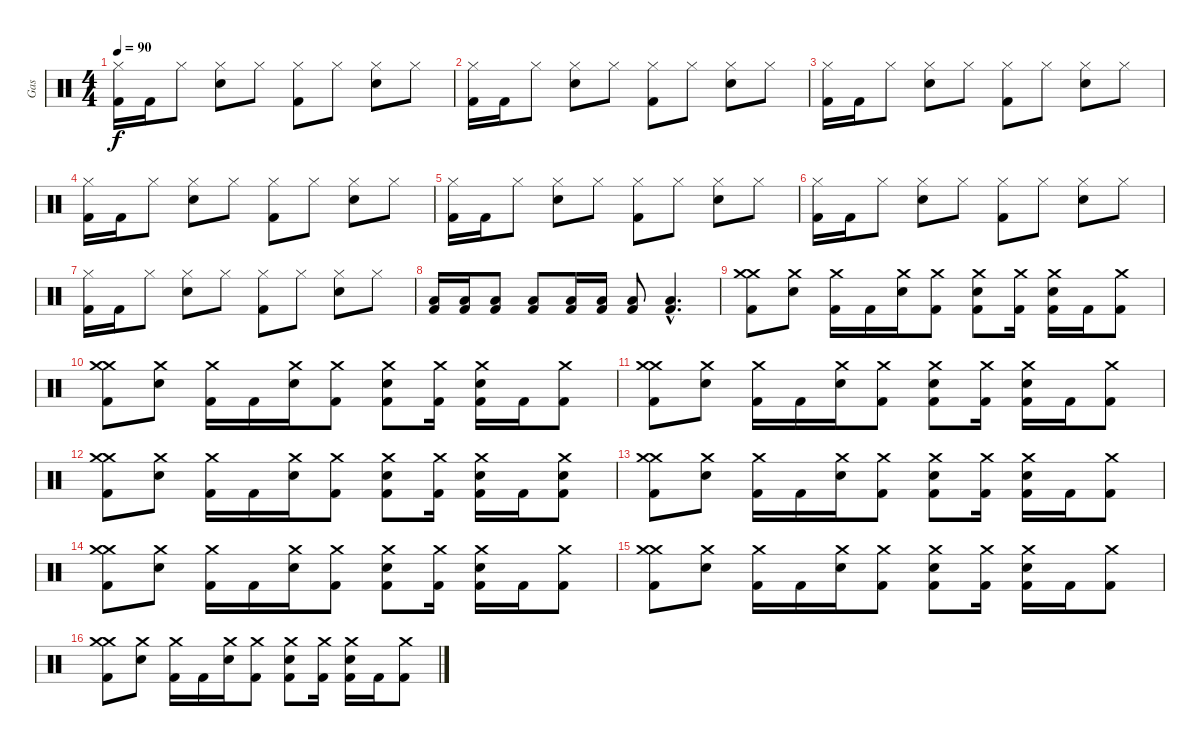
\track ("Gas" "Gas") {instrument percussion}
\staff {score}
\articulation defaults
\ts (4 4)
\tempo 90
\clef neutral
\ks c
("Hi-Hat (closed)" "Kick (hit) 2").16{dy f} "Kick (hit) 2".16 "Hi-Hat (closed)".8 ("Snare (hit) 2" "Hi-Hat (closed)").8 "Hi-Hat (closed)".8 ("Hi-Hat (closed)" "Kick (hit) 2").8 "Hi-Hat (closed)".8 ("Snare (hit) 2" "Hi-Hat (closed)").8 "Hi-Hat (closed)".8 |
("Hi-Hat (closed)" "Kick (hit) 2").16 "Kick (hit) 2".16 "Hi-Hat (closed)".8 ("Snare (hit) 2" "Hi-Hat (closed)").8 "Hi-Hat (closed)".8 ("Hi-Hat (closed)" "Kick (hit) 2").8 "Hi-Hat (closed)".8 ("Snare (hit) 2" "Hi-Hat (closed)").8 "Hi-Hat (closed)".8 |
("Hi-Hat (closed)" "Kick (hit) 2").16 "Kick (hit) 2".16 "Hi-Hat (closed)".8 ("Snare (hit) 2" "Hi-Hat (closed)").8 "Hi-Hat (closed)".8 ("Hi-Hat (closed)" "Kick (hit) 2").8 "Hi-Hat (closed)".8 ("Snare (hit) 2" "Hi-Hat (closed)").8 "Hi-Hat (closed)".8 |
("Hi-Hat (closed)" "Kick (hit) 2").16 "Kick (hit) 2".16 "Hi-Hat (closed)".8 ("Snare (hit) 2" "Hi-Hat (closed)").8 "Hi-Hat (closed)".8 ("Hi-Hat (closed)" "Kick (hit) 2").8 "Hi-Hat (closed)".8 ("Snare (hit) 2" "Hi-Hat (closed)").8 "Hi-Hat (closed)".8 |
("Hi-Hat (closed)" "Kick (hit) 2").16 "Kick (hit) 2".16 "Hi-Hat (closed)".8 ("Snare (hit) 2" "Hi-Hat (closed)").8 "Hi-Hat (closed)".8 ("Hi-Hat (closed)" "Kick (hit) 2").8 "Hi-Hat (closed)".8 ("Snare (hit) 2" "Hi-Hat (closed)").8 "Hi-Hat (closed)".8 |
("Hi-Hat (closed)" "Kick (hit) 2").16 "Kick (hit) 2".16 "Hi-Hat (closed)".8 ("Snare (hit) 2" "Hi-Hat (closed)").8 "Hi-Hat (closed)".8 ("Hi-Hat (closed)" "Kick (hit) 2").8 "Hi-Hat (closed)".8 ("Snare (hit) 2" "Hi-Hat (closed)").8 "Hi-Hat (closed)".8 |
("Hi-Hat (closed)" "Kick (hit) 2").16 "Kick (hit) 2".16 "Hi-Hat (closed)".8 ("Snare (hit) 2" "Hi-Hat (closed)").8 "Hi-Hat (closed)".8 ("Hi-Hat (closed)" "Kick (hit) 2").8 "Hi-Hat (closed)".8 ("Snare (hit) 2" "Hi-Hat (closed)").8 "Hi-Hat (closed)".8 |
("Low Floor Tom (hit)" "Kick (hit) 2").16 ("Low Floor Tom (hit)" "Kick (hit) 2").16 ("Low Floor Tom (hit)" "Kick (hit) 2").8 ("Low Floor Tom (hit)" "Kick (hit) 2").8 ("Low Floor Tom (hit)" "Kick (hit) 2").16 ("Low Floor Tom (hit)" "Kick (hit) 2").16 ("Low Floor Tom (hit)" "Kick (hit) 2").8 ("Low Floor Tom (hit)"{hac} "Kick (hit) 2"{hac}).4{d} |
("Crash medium (hit)" "Crash medium (hit)" "Kick (hit) 2").8 ("Snare (hit) 2" "Crash medium (hit)").8 ("Crash medium (hit)" "Kick (hit) 2").16 "Kick (hit) 2".16 ("Snare (hit) 2" "Crash medium (hit)").16 ("Crash medium (hit)" "Kick (hit) 2").8 ("Snare (hit) 2" "Crash medium (hit)" "Kick (hit) 2").8 ("Crash medium (hit)" "Kick (hit) 2").16 ("Snare (hit) 2" "Crash medium (hit)" "Kick (hit) 2").16 "Kick (hit) 2".16 ("Crash medium (hit)" "Kick (hit) 2").8 |
("Crash medium (hit)" "Crash medium (hit)" "Kick (hit) 2").8 ("Snare (hit) 2" "Crash medium (hit)").8 ("Crash medium (hit)" "Kick (hit) 2").16 "Kick (hit) 2".16 ("Snare (hit) 2" "Crash medium (hit)").16 ("Crash medium (hit)" "Kick (hit) 2").8 ("Snare (hit) 2" "Crash medium (hit)" "Kick (hit) 2").8 ("Crash medium (hit)" "Kick (hit) 2").16 ("Snare (hit) 2" "Crash medium (hit)" "Kick (hit) 2").16 "Kick (hit) 2".16 ("Crash medium (hit)" "Kick (hit) 2").8 |
("Crash medium (hit)" "Crash medium (hit)" "Kick (hit) 2").8 ("Snare (hit) 2" "Crash medium (hit)").8 ("Crash medium (hit)" "Kick (hit) 2").16 "Kick (hit) 2".16 ("Snare (hit) 2" "Crash medium (hit)").16 ("Crash medium (hit)" "Kick (hit) 2").8 ("Snare (hit) 2" "Crash medium (hit)" "Kick (hit) 2").8 ("Crash medium (hit)" "Kick (hit) 2").16 ("Snare (hit) 2" "Crash medium (hit)" "Kick (hit) 2").16 "Kick (hit) 2".16 ("Crash medium (hit)" "Kick (hit) 2").8 |
("Crash medium (hit)" "Crash medium (hit)" "Kick (hit) 2").8 ("Snare (hit) 2" "Crash medium (hit)").8 ("Crash medium (hit)" "Kick (hit) 2").16 "Kick (hit) 2".16 ("Snare (hit) 2" "Crash medium (hit)").16 ("Crash medium (hit)" "Kick (hit) 2").8 ("Snare (hit) 2" "Crash medium (hit)" "Kick (hit) 2").8 ("Crash medium (hit)" "Kick (hit) 2").16 ("Snare (hit) 2" "Crash medium (hit)" "Kick (hit) 2").16 "Kick (hit) 2".16 ("Snare (hit) 2" "Crash medium (hit)" "Kick (hit) 2").8 |
("Crash medium (hit)" "Crash medium (hit)" "Kick (hit) 2").8 ("Snare (hit) 2" "Crash medium (hit)").8 ("Crash medium (hit)" "Kick (hit) 2").16 "Kick (hit) 2".16 ("Snare (hit) 2" "Crash medium (hit)").16 ("Crash medium (hit)" "Kick (hit) 2").8 ("Snare (hit) 2" "Crash medium (hit)" "Kick (hit) 2").8 ("Crash medium (hit)" "Kick (hit) 2").16 ("Snare (hit) 2" "Crash medium (hit)" "Kick (hit) 2").16 "Kick (hit) 2".16 ("Crash medium (hit)" "Kick (hit) 2").8 |
("Crash medium (hit)" "Crash medium (hit)" "Kick (hit) 2").8 ("Snare (hit) 2" "Crash medium (hit)").8 ("Crash medium (hit)" "Kick (hit) 2").16 "Kick (hit) 2".16 ("Snare (hit) 2" "Crash medium (hit)").16 ("Crash medium (hit)" "Kick (hit) 2").8 ("Snare (hit) 2" "Crash medium (hit)" "Kick (hit) 2").8 ("Crash medium (hit)" "Kick (hit) 2").16 ("Snare (hit) 2" "Crash medium (hit)" "Kick (hit) 2").16 "Kick (hit) 2".16 ("Crash medium (hit)" "Kick (hit) 2").8 |
("Crash medium (hit)" "Crash medium (hit)" "Kick (hit) 2").8 ("Snare (hit) 2" "Crash medium (hit)").8 ("Crash medium (hit)" "Kick (hit) 2").16 "Kick (hit) 2".16 ("Snare (hit) 2" "Crash medium (hit)").16 ("Crash medium (hit)" "Kick (hit) 2").8 ("Snare (hit) 2" "Crash medium (hit)" "Kick (hit) 2").8 ("Crash medium (hit)" "Kick (hit) 2").16 ("Snare (hit) 2" "Crash medium (hit)" "Kick (hit) 2").16 "Kick (hit) 2".16 ("Crash medium (hit)" "Kick (hit) 2").8 |
("Crash medium (hit)" "Crash medium (hit)" "Kick (hit) 2").8 ("Snare (hit) 2" "Crash medium (hit)").8 ("Crash medium (hit)" "Kick (hit) 2").16 "Kick (hit) 2".16 ("Snare (hit) 2" "Crash medium (hit)").16 ("Crash medium (hit)" "Kick (hit) 2").8 ("Snare (hit) 2" "Crash medium (hit)" "Kick (hit) 2").8 ("Crash medium (hit)" "Kick (hit) 2").16 ("Snare (hit) 2" "Crash medium (hit)" "Kick (hit) 2").16 "Kick (hit) 2".16 ("Crash medium (hit)" "Kick (hit) 2").8
